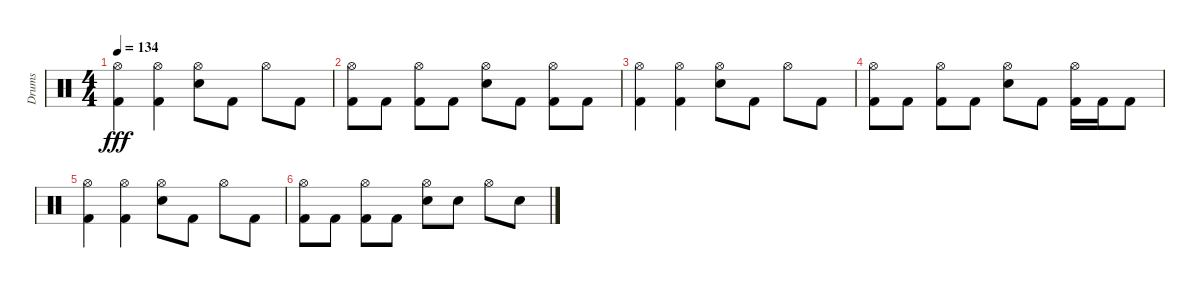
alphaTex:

\track ("Drums" "Drums") {instrument percussion}
\staff {score}
\articulation defaults
\ts (4 4)
\tempo 134
\clef neutral
\ks c
("Hi-Hat (open)" "Kick (hit) 2").4{dy fff} ("Hi-Hat (open)" "Kick (hit) 2").4 ("Hi-Hat (open)" "Electric Snare (hit)").8 "Kick (hit) 2".8 "Hi-Hat (open)".8 "Kick (hit) 2".8 |
("Hi-Hat (open)" "Kick (hit) 2").8 "Kick (hit) 2".8 ("Hi-Hat (open)" "Kick (hit) 2").8 "Kick (hit) 2".8 ("Hi-Hat (open)" "Electric Snare (hit)").8 "Kick (hit) 2".8 ("Hi-Hat (open)" "Kick (hit) 2").8 "Kick (hit) 2".8 |
("Hi-Hat (open)" "Kick (hit) 2").4 ("Hi-Hat (open)" "Kick (hit) 2").4 ("Hi-Hat (open)" "Electric Snare (hit)").8 "Kick (hit) 2".8 "Hi-Hat (open)".8 "Kick (hit) 2".8 |
("Hi-Hat (open)" "Kick (hit) 2").8 "Kick (hit) 2".8 ("Hi-Hat (open)" "Kick (hit) 2").8 "Kick (hit) 2".8 ("Hi-Hat (open)" "Electric Snare (hit)").8 "Kick (hit) 2".8 ("Hi-Hat (open)" "Kick (hit) 2").16 "Kick (hit) 2".16 "Kick (hit) 2".8 |
("Hi-Hat (open)" "Kick (hit) 2").4 ("Hi-Hat (open)" "Kick (hit) 2").4 ("Hi-Hat (open)" "Electric Snare (hit)").8 "Kick (hit) 2".8 "Hi-Hat (open)".8 "Kick (hit) 2".8 |
("Hi-Hat (open)" "Kick (hit) 2").8 "Kick (hit) 2".8 ("Hi-Hat (open)" "Kick (hit) 2").8 "Kick (hit) 2".8 ("Hi-Hat (open)" "Electric Snare (hit)").8 "Electric Snare (hit)".8 "Hi-Hat (open)".8 "Electric Snare (hit)".8
